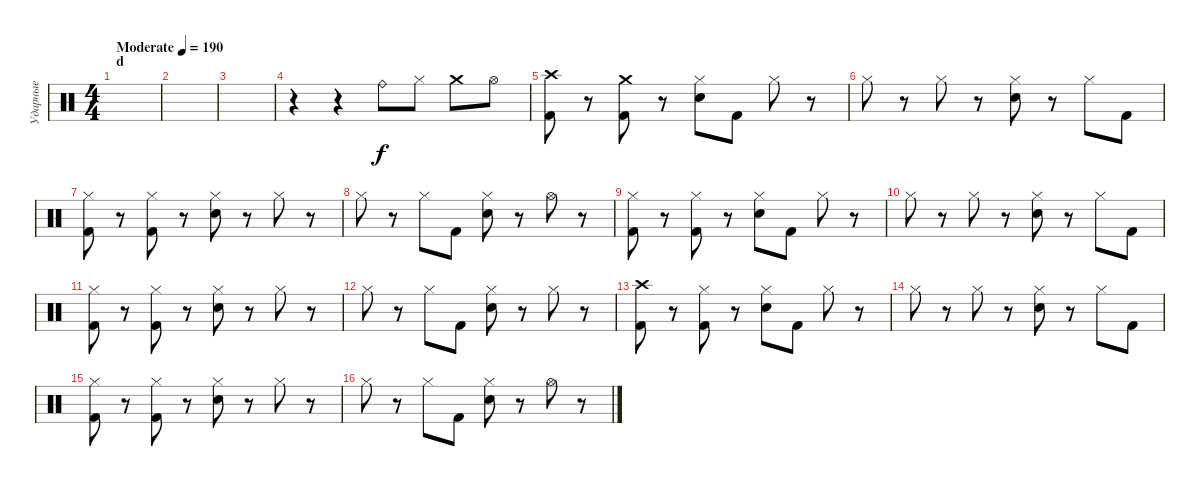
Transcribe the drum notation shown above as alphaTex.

\track ("Ударные" "Ударные") {instrument percussion}
\staff {score}
\articulation defaults
\ts (4 4)
\section ("" "d")
\tempo (190 "Moderate")
\clef neutral
\ks c
|
|
|
r.4 r.4 "Ride (bell)".8 "Hi-Hat (closed)".8 "Crash medium (hit)".8 "Hi-Hat (open)".8 |
("Crash high (hit)" "Kick (hit) 2").8 r.8 ("Crash medium (hit)" "Kick (hit) 2").8 r.8 ("Hi-Hat (closed)" "Snare (hit) 2").8 "Kick (hit) 2".8 "Hi-Hat (closed)".8 r.8 |
"Hi-Hat (closed)".8 r.8 "Hi-Hat (closed)".8 r.8 ("Hi-Hat (closed)" "Snare (hit) 2").8 r.8 "Hi-Hat (closed)".8 "Kick (hit) 2".8 |
("Hi-Hat (closed)" "Kick (hit) 2").8 r.8 ("Hi-Hat (closed)" "Kick (hit) 2").8 r.8 ("Hi-Hat (closed)" "Snare (hit) 2").8 r.8 "Hi-Hat (closed)".8 r.8 |
"Hi-Hat (closed)".8 r.8 "Hi-Hat (closed)".8 "Kick (hit) 2".8 ("Hi-Hat (closed)" "Snare (hit) 2").8 r.8 "Hi-Hat (open)".8 r.8 |
("Hi-Hat (closed)" "Kick (hit) 2").8 r.8 ("Hi-Hat (closed)" "Kick (hit) 2").8 r.8 ("Hi-Hat (closed)" "Snare (hit) 2").8 "Kick (hit) 2".8 "Hi-Hat (closed)".8 r.8 |
"Hi-Hat (closed)".8 r.8 "Hi-Hat (closed)".8 r.8 ("Hi-Hat (closed)" "Snare (hit) 2").8 r.8 "Hi-Hat (closed)".8 "Kick (hit) 2".8 |
("Hi-Hat (closed)" "Kick (hit) 2").8 r.8 ("Hi-Hat (closed)" "Kick (hit) 2").8 r.8 ("Hi-Hat (closed)" "Snare (hit) 2").8 r.8 "Hi-Hat (closed)".8 r.8 |
"Hi-Hat (closed)".8 r.8 "Hi-Hat (closed)".8 "Kick (hit) 2".8 ("Hi-Hat (closed)" "Snare (hit) 2").8 r.8 "Hi-Hat (closed)".8 r.8 |
("Crash high (hit)" "Kick (hit) 2").8 r.8 ("Hi-Hat (closed)" "Kick (hit) 2").8 r.8 ("Hi-Hat (closed)" "Snare (hit) 2").8 "Kick (hit) 2".8 "Hi-Hat (closed)".8 r.8 |
"Hi-Hat (closed)".8 r.8 "Hi-Hat (closed)".8 r.8 ("Hi-Hat (closed)" "Snare (hit) 2").8 r.8 "Hi-Hat (closed)".8 "Kick (hit) 2".8 |
("Hi-Hat (closed)" "Kick (hit) 2").8 r.8 ("Hi-Hat (closed)" "Kick (hit) 2").8 r.8 ("Hi-Hat (closed)" "Snare (hit) 2").8 r.8 "Hi-Hat (closed)".8 r.8 |
"Hi-Hat (closed)".8 r.8 "Hi-Hat (closed)".8 "Kick (hit) 2".8 ("Hi-Hat (closed)" "Snare (hit) 2").8 r.8 "Hi-Hat (open)".8 r.8
